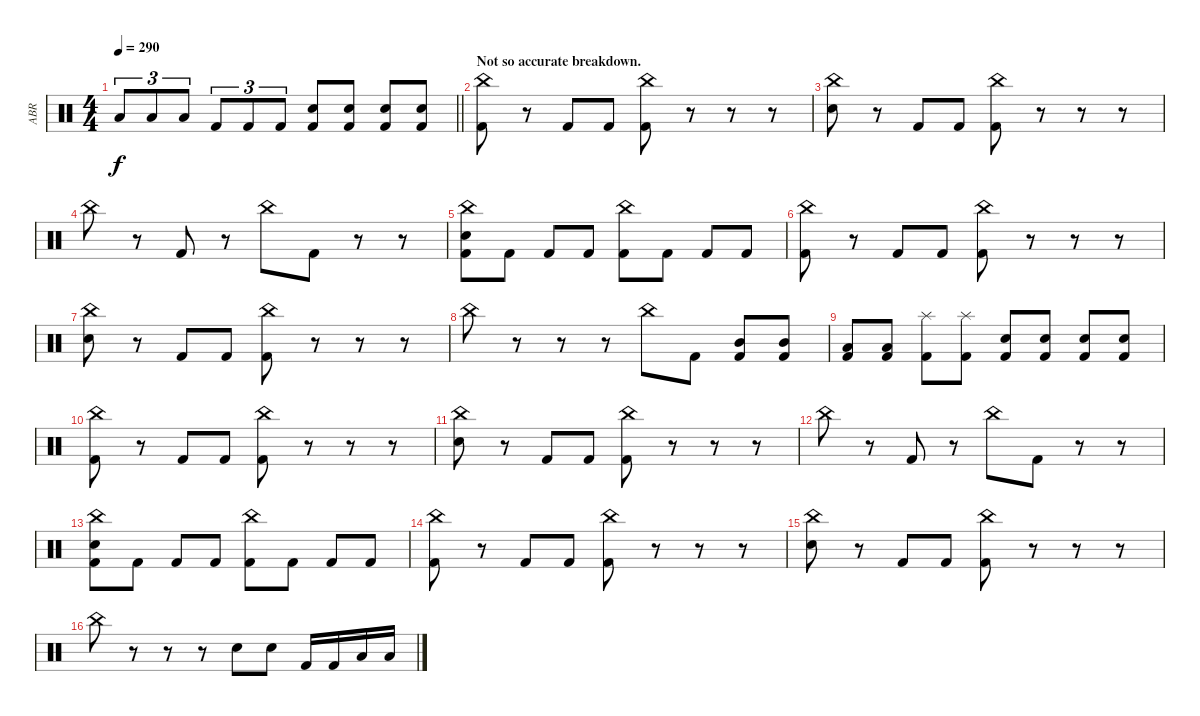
\track ("ABR" "ABR") {instrument percussion}
\staff {score}
\articulation defaults
\ts (4 4)
\tempo 290
\clef neutral
\barLineRight lightlight
\ks c "Low Floor Tom (hit)".8{tu (3 2) dy f} "Low Floor Tom (hit)".8{tu (3 2)} "Low Floor Tom (hit)".8{tu (3 2)} "Kick (hit) 2".8{tu (3 2)} "Kick (hit) 2".8{tu (3 2)} "Kick (hit) 2".8{tu (3 2)}
("Snare (hit) 2" "Kick (hit) 2").8 ("Snare (hit) 2" "Kick (hit) 2").8 ("Snare (hit) 2" "Kick (hit) 2").8 ("Snare (hit) 2" "Kick (hit) 2").8 |
\section ("" "Not so accurate breakdown.")
("China (hit)" "Kick (hit) 2").8 r.8 "Kick (hit) 2".8 "Kick (hit) 2".8 ("China (hit)" "Kick (hit) 2").8 r.8 r.8 r.8 |
("China (hit)" "Snare (hit) 2").8 r.8 "Kick (hit) 2".8 "Kick (hit) 2".8 ("China (hit)" "Kick (hit) 2").8 r.8 r.8 r.8 |
"China (hit)".8 r.8 "Kick (hit) 2".8 r.8 "China (hit)".8 "Kick (hit) 2".8 r.8 r.8 |
("China (hit)" "Snare (hit) 2" "Kick (hit) 2").8 "Kick (hit) 2".8 "Kick (hit) 2".8 "Kick (hit) 2".8 ("China (hit)" "Kick (hit) 2").8 "Kick (hit) 2".8 "Kick (hit) 2".8 "Kick (hit) 2".8 |
("China (hit)" "Kick (hit) 2").8 r.8 "Kick (hit) 2".8 "Kick (hit) 2".8 ("China (hit)" "Kick (hit) 2").8 r.8 r.8 r.8 |
("China (hit)" "Snare (hit) 2").8 r.8 "Kick (hit) 2".8 "Kick (hit) 2".8 ("China (hit)" "Kick (hit) 2").8 r.8 r.8 r.8 |
"China (hit)".8 r.8 r.8 r.8 "China (hit)".8 "Kick (hit) 2".8 ("Mid Tom (hit)" "Kick (hit) 2").8 ("Mid Tom (hit)" "Kick (hit) 2").8 |
("Low Tom (hit)" "Kick (hit) 2").8 ("Low Tom (hit)" "Kick (hit) 2").8 ("Splash (hit)" "Kick (hit) 2").8 ("Splash (hit)" "Kick (hit) 2").8 ("Snare (hit) 2" "Kick (hit) 2").8 ("Snare (hit) 2" "Kick (hit) 2").8 ("Snare (hit) 2" "Kick (hit) 2").8 ("Snare (hit) 2" "Kick (hit) 2").8 |
("China (hit)" "Kick (hit) 2").8 r.8 "Kick (hit) 2".8 "Kick (hit) 2".8 ("China (hit)" "Kick (hit) 2").8 r.8 r.8 r.8 |
("China (hit)" "Snare (hit) 2").8 r.8 "Kick (hit) 2".8 "Kick (hit) 2".8 ("China (hit)" "Kick (hit) 2").8 r.8 r.8 r.8 |
"China (hit)".8 r.8 "Kick (hit) 2".8 r.8 "China (hit)".8 "Kick (hit) 2".8 r.8 r.8 |
("China (hit)" "Snare (hit) 2" "Kick (hit) 2").8 "Kick (hit) 2".8 "Kick (hit) 2".8 "Kick (hit) 2".8 ("China (hit)" "Kick (hit) 2").8 "Kick (hit) 2".8 "Kick (hit) 2".8 "Kick (hit) 2".8 |
("China (hit)" "Kick (hit) 2").8 r.8 "Kick (hit) 2".8 "Kick (hit) 2".8 ("China (hit)" "Kick (hit) 2").8 r.8 r.8 r.8 |
("China (hit)" "Snare (hit) 2").8 r.8 "Kick (hit) 2".8 "Kick (hit) 2".8 ("China (hit)" "Kick (hit) 2").8 r.8 r.8 r.8 |
"China (hit)".8 r.8 r.8 r.8 "Snare (hit) 2".8 "Snare (hit) 2".8 "Kick (hit) 2".16 "Kick (hit) 2".16 "Low Floor Tom (hit)".16 "Low Floor Tom (hit)".16
